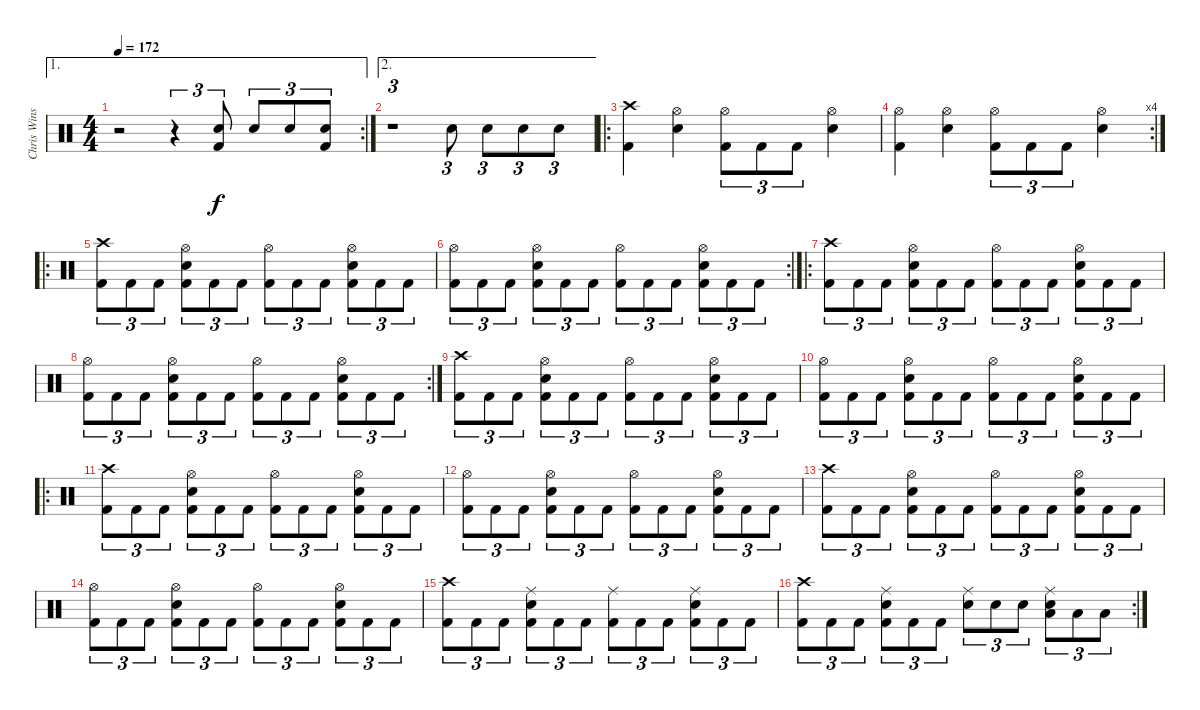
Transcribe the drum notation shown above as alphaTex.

\track ("Chris Winship (Drums)" "Chris Wins") {instrument percussion}
\staff {score}
\articulation defaults
\ae 1
\rc 2
\ts (4 4)
\tempo 172
\clef neutral
\ks c
r.2{dy f} r.4{tu (3 2)} ("Kick (hit) 2" "Electric Snare (hit)").8{tu (3 2)} "Electric Snare (hit)".8{tu (3 2)} "Electric Snare (hit)".8{tu (3 2)} ("Kick (hit) 2" "Electric Snare (hit)").8{tu (3 2)} |
\ae 2
r.1{tu (3 2)} "Electric Snare (hit)".8{tu (3 2)} "Electric Snare (hit)".8{tu (3 2)} "Electric Snare (hit)".8{tu (3 2)} "Electric Snare (hit)".8{tu (3 2)} |
\ro
("Crash high (hit)" "Kick (hit) 2").4 ("Hi-Hat (open)" "Electric Snare (hit)").4 ("Hi-Hat (open)" "Kick (hit) 2").8{tu (3 2)} "Kick (hit) 2".8{tu (3 2)} "Kick (hit) 2".8{tu (3 2)} ("Hi-Hat (open)" "Electric Snare (hit)").4 |
\rc 4
("Hi-Hat (open)" "Kick (hit) 2").4 ("Hi-Hat (open)" "Electric Snare (hit)").4 ("Hi-Hat (open)" "Kick (hit) 2").8{tu (3 2)} "Kick (hit) 2".8{tu (3 2)} "Kick (hit) 2".8{tu (3 2)} ("Hi-Hat (open)" "Electric Snare (hit)").4 |
\ro
("Crash high (hit)" "Kick (hit) 2").8{tu (3 2)} "Kick (hit) 2".8{tu (3 2)} "Kick (hit) 2".8{tu (3 2)} ("Hi-Hat (open)" "Electric Snare (hit)" "Kick (hit) 2").8{tu (3 2)} "Kick (hit) 2".8{tu (3 2)} "Kick (hit) 2".8{tu (3 2)} ("Hi-Hat (open)" "Kick (hit) 2").8{tu (3 2)} "Kick (hit) 2".8{tu (3 2)} "Kick (hit) 2".8{tu (3 2)} ("Hi-Hat (open)" "Electric Snare (hit)" "Kick (hit) 2").8{tu (3 2)} "Kick (hit) 2".8{tu (3 2)} "Kick (hit) 2".8{tu (3 2)} |
\rc 2
("Hi-Hat (open)" "Kick (hit) 2").8{tu (3 2)} "Kick (hit) 2".8{tu (3 2)} "Kick (hit) 2".8{tu (3 2)} ("Hi-Hat (open)" "Electric Snare (hit)" "Kick (hit) 2").8{tu (3 2)} "Kick (hit) 2".8{tu (3 2)} "Kick (hit) 2".8{tu (3 2)} ("Hi-Hat (open)" "Kick (hit) 2").8{tu (3 2)} "Kick (hit) 2".8{tu (3 2)} "Kick (hit) 2".8{tu (3 2)} ("Hi-Hat (open)" "Electric Snare (hit)" "Kick (hit) 2").8{tu (3 2)} "Kick (hit) 2".8{tu (3 2)} "Kick (hit) 2".8{tu (3 2)} |
\ro
("Crash high (hit)" "Kick (hit) 2").8{tu (3 2)} "Kick (hit) 2".8{tu (3 2)} "Kick (hit) 2".8{tu (3 2)} ("Hi-Hat (open)" "Electric Snare (hit)" "Kick (hit) 2").8{tu (3 2)} "Kick (hit) 2".8{tu (3 2)} "Kick (hit) 2".8{tu (3 2)} ("Hi-Hat (open)" "Kick (hit) 2").8{tu (3 2)} "Kick (hit) 2".8{tu (3 2)} "Kick (hit) 2".8{tu (3 2)} ("Hi-Hat (open)" "Electric Snare (hit)" "Kick (hit) 2").8{tu (3 2)} "Kick (hit) 2".8{tu (3 2)} "Kick (hit) 2".8{tu (3 2)} |
\rc 2
("Hi-Hat (open)" "Kick (hit) 2").8{tu (3 2)} "Kick (hit) 2".8{tu (3 2)} "Kick (hit) 2".8{tu (3 2)} ("Hi-Hat (open)" "Electric Snare (hit)" "Kick (hit) 2").8{tu (3 2)} "Kick (hit) 2".8{tu (3 2)} "Kick (hit) 2".8{tu (3 2)} ("Hi-Hat (open)" "Kick (hit) 2").8{tu (3 2)} "Kick (hit) 2".8{tu (3 2)} "Kick (hit) 2".8{tu (3 2)} ("Hi-Hat (open)" "Electric Snare (hit)" "Kick (hit) 2").8{tu (3 2)} "Kick (hit) 2".8{tu (3 2)} "Kick (hit) 2".8{tu (3 2)} |
("Crash high (hit)" "Kick (hit) 2").8{tu (3 2)} "Kick (hit) 2".8{tu (3 2)} "Kick (hit) 2".8{tu (3 2)} ("Hi-Hat (open)" "Electric Snare (hit)" "Kick (hit) 2").8{tu (3 2)} "Kick (hit) 2".8{tu (3 2)} "Kick (hit) 2".8{tu (3 2)} ("Hi-Hat (open)" "Kick (hit) 2").8{tu (3 2)} "Kick (hit) 2".8{tu (3 2)} "Kick (hit) 2".8{tu (3 2)} ("Hi-Hat (open)" "Electric Snare (hit)" "Kick (hit) 2").8{tu (3 2)} "Kick (hit) 2".8{tu (3 2)} "Kick (hit) 2".8{tu (3 2)} |
("Hi-Hat (open)" "Kick (hit) 2").8{tu (3 2)} "Kick (hit) 2".8{tu (3 2)} "Kick (hit) 2".8{tu (3 2)} ("Hi-Hat (open)" "Electric Snare (hit)" "Kick (hit) 2").8{tu (3 2)} "Kick (hit) 2".8{tu (3 2)} "Kick (hit) 2".8{tu (3 2)} ("Hi-Hat (open)" "Kick (hit) 2").8{tu (3 2)} "Kick (hit) 2".8{tu (3 2)} "Kick (hit) 2".8{tu (3 2)} ("Hi-Hat (open)" "Electric Snare (hit)" "Kick (hit) 2").8{tu (3 2)} "Kick (hit) 2".8{tu (3 2)} "Kick (hit) 2".8{tu (3 2)} |
\ro
("Crash high (hit)" "Kick (hit) 2").8{tu (3 2)} "Kick (hit) 2".8{tu (3 2)} "Kick (hit) 2".8{tu (3 2)} ("Hi-Hat (open)" "Electric Snare (hit)" "Kick (hit) 2").8{tu (3 2)} "Kick (hit) 2".8{tu (3 2)} "Kick (hit) 2".8{tu (3 2)} ("Hi-Hat (open)" "Kick (hit) 2").8{tu (3 2)} "Kick (hit) 2".8{tu (3 2)} "Kick (hit) 2".8{tu (3 2)} ("Hi-Hat (open)" "Electric Snare (hit)" "Kick (hit) 2").8{tu (3 2)} "Kick (hit) 2".8{tu (3 2)} "Kick (hit) 2".8{tu (3 2)} |
("Hi-Hat (open)" "Kick (hit) 2").8{tu (3 2)} "Kick (hit) 2".8{tu (3 2)} "Kick (hit) 2".8{tu (3 2)} ("Hi-Hat (open)" "Electric Snare (hit)" "Kick (hit) 2").8{tu (3 2)} "Kick (hit) 2".8{tu (3 2)} "Kick (hit) 2".8{tu (3 2)} ("Hi-Hat (open)" "Kick (hit) 2").8{tu (3 2)} "Kick (hit) 2".8{tu (3 2)} "Kick (hit) 2".8{tu (3 2)} ("Hi-Hat (open)" "Electric Snare (hit)" "Kick (hit) 2").8{tu (3 2)} "Kick (hit) 2".8{tu (3 2)} "Kick (hit) 2".8{tu (3 2)} |
("Crash high (hit)" "Kick (hit) 2").8{tu (3 2)} "Kick (hit) 2".8{tu (3 2)} "Kick (hit) 2".8{tu (3 2)} ("Hi-Hat (open)" "Electric Snare (hit)" "Kick (hit) 2").8{tu (3 2)} "Kick (hit) 2".8{tu (3 2)} "Kick (hit) 2".8{tu (3 2)} ("Hi-Hat (open)" "Kick (hit) 2").8{tu (3 2)} "Kick (hit) 2".8{tu (3 2)} "Kick (hit) 2".8{tu (3 2)} ("Hi-Hat (open)" "Electric Snare (hit)" "Kick (hit) 2").8{tu (3 2)} "Kick (hit) 2".8{tu (3 2)} "Kick (hit) 2".8{tu (3 2)} |
("Hi-Hat (open)" "Kick (hit) 2").8{tu (3 2)} "Kick (hit) 2".8{tu (3 2)} "Kick (hit) 2".8{tu (3 2)} ("Hi-Hat (open)" "Electric Snare (hit)" "Kick (hit) 2").8{tu (3 2)} "Kick (hit) 2".8{tu (3 2)} "Kick (hit) 2".8{tu (3 2)} ("Hi-Hat (open)" "Kick (hit) 2").8{tu (3 2)} "Kick (hit) 2".8{tu (3 2)} "Kick (hit) 2".8{tu (3 2)} ("Hi-Hat (open)" "Electric Snare (hit)" "Kick (hit) 2").8{tu (3 2)} "Kick (hit) 2".8{tu (3 2)} "Kick (hit) 2".8{tu (3 2)} |
("Crash high (hit)" "Kick (hit) 2").8{tu (3 2)} "Kick (hit) 2".8{tu (3 2)} "Kick (hit) 2".8{tu (3 2)} ("Ride (middle)" "Electric Snare (hit)" "Kick (hit) 2").8{tu (3 2)} "Kick (hit) 2".8{tu (3 2)} "Kick (hit) 2".8{tu (3 2)} ("Ride (middle)" "Kick (hit) 2").8{tu (3 2)} "Kick (hit) 2".8{tu (3 2)} "Kick (hit) 2".8{tu (3 2)} ("Ride (middle)" "Electric Snare (hit)" "Kick (hit) 2").8{tu (3 2)} "Kick (hit) 2".8{tu (3 2)} "Kick (hit) 2".8{tu (3 2)} |
\rc 2
("Crash high (hit)" "Kick (hit) 2").8{tu (3 2)} "Kick (hit) 2".8{tu (3 2)} "Kick (hit) 2".8{tu (3 2)} ("Ride (middle)" "Electric Snare (hit)" "Kick (hit) 2").8{tu (3 2)} "Kick (hit) 2".8{tu (3 2)} "Kick (hit) 2".8{tu (3 2)} ("Ride (middle)" "Electric Snare (hit)").8{tu (3 2)} "Electric Snare (hit)".8{tu (3 2)} "Electric Snare (hit)".8{tu (3 2)} ("Ride (middle)" "Electric Snare (hit)" "Low Floor Tom (hit)").8{tu (3 2)} "Low Floor Tom (hit)".8{tu (3 2)} "Low Floor Tom (hit)".8{tu (3 2)}
